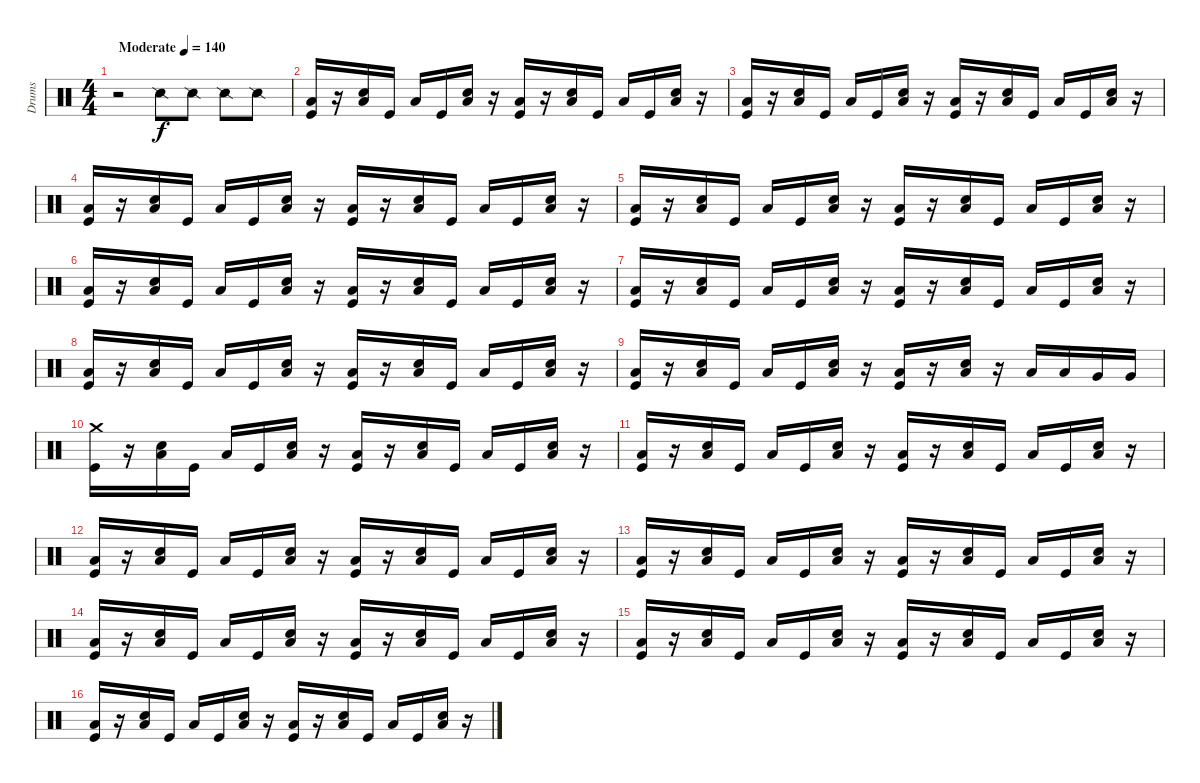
\track ("Drums" "Drums") {instrument percussion}
\staff {score}
\articulation defaults
\ts (4 4)
\tempo (140 "Moderate")
\clef neutral
\ks c
r.2{dy f} "Snare (side stick) 2".8 "Snare (side stick) 2".8 "Snare (side stick) 2".8 "Snare (side stick) 2".8 |
("Low Floor Tom (hit)" "Kick (hit)").16 r.16 ("Low Floor Tom (hit)" "Snare (hit) 2").16 "Kick (hit)".16 "Low Floor Tom (hit)".16 "Kick (hit)".16 ("Low Floor Tom (hit)" "Snare (hit) 2").16 r.16 ("Low Floor Tom (hit)" "Kick (hit)").16 r.16 ("Low Floor Tom (hit)" "Snare (hit) 2").16 "Kick (hit)".16 "Low Floor Tom (hit)".16 "Kick (hit)".16 ("Low Floor Tom (hit)" "Snare (hit) 2").16 r.16 |
("Low Floor Tom (hit)" "Kick (hit)").16 r.16 ("Low Floor Tom (hit)" "Snare (hit) 2").16 "Kick (hit)".16 "Low Floor Tom (hit)".16 "Kick (hit)".16 ("Low Floor Tom (hit)" "Snare (hit) 2").16 r.16 ("Low Floor Tom (hit)" "Kick (hit)").16 r.16 ("Low Floor Tom (hit)" "Snare (hit) 2").16 "Kick (hit)".16 "Low Floor Tom (hit)".16 "Kick (hit)".16 ("Low Floor Tom (hit)" "Snare (hit) 2").16 r.16 |
("Low Floor Tom (hit)" "Kick (hit)").16 r.16 ("Low Floor Tom (hit)" "Snare (hit) 2").16 "Kick (hit)".16 "Low Floor Tom (hit)".16 "Kick (hit)".16 ("Low Floor Tom (hit)" "Snare (hit) 2").16 r.16 ("Low Floor Tom (hit)" "Kick (hit)").16 r.16 ("Low Floor Tom (hit)" "Snare (hit) 2").16 "Kick (hit)".16 "Low Floor Tom (hit)".16 "Kick (hit)".16 ("Low Floor Tom (hit)" "Snare (hit) 2").16 r.16 |
("Low Floor Tom (hit)" "Kick (hit)").16 r.16 ("Low Floor Tom (hit)" "Snare (hit) 2").16 "Kick (hit)".16 "Low Floor Tom (hit)".16 "Kick (hit)".16 ("Low Floor Tom (hit)" "Snare (hit) 2").16 r.16 ("Low Floor Tom (hit)" "Kick (hit)").16 r.16 ("Low Floor Tom (hit)" "Snare (hit) 2").16 "Kick (hit)".16 "Low Floor Tom (hit)".16 "Kick (hit)".16 ("Low Floor Tom (hit)" "Snare (hit) 2").16 r.16 |
("Low Floor Tom (hit)" "Kick (hit)").16 r.16 ("Low Floor Tom (hit)" "Snare (hit) 2").16 "Kick (hit)".16 "Low Floor Tom (hit)".16 "Kick (hit)".16 ("Low Floor Tom (hit)" "Snare (hit) 2").16 r.16 ("Low Floor Tom (hit)" "Kick (hit)").16 r.16 ("Low Floor Tom (hit)" "Snare (hit) 2").16 "Kick (hit)".16 "Low Floor Tom (hit)".16 "Kick (hit)".16 ("Low Floor Tom (hit)" "Snare (hit) 2").16 r.16 |
("Low Floor Tom (hit)" "Kick (hit)").16 r.16 ("Low Floor Tom (hit)" "Snare (hit) 2").16 "Kick (hit)".16 "Low Floor Tom (hit)".16 "Kick (hit)".16 ("Low Floor Tom (hit)" "Snare (hit) 2").16 r.16 ("Low Floor Tom (hit)" "Kick (hit)").16 r.16 ("Low Floor Tom (hit)" "Snare (hit) 2").16 "Kick (hit)".16 "Low Floor Tom (hit)".16 "Kick (hit)".16 ("Low Floor Tom (hit)" "Snare (hit) 2").16 r.16 |
("Low Floor Tom (hit)" "Kick (hit)").16 r.16 ("Low Floor Tom (hit)" "Snare (hit) 2").16 "Kick (hit)".16 "Low Floor Tom (hit)".16 "Kick (hit)".16 ("Low Floor Tom (hit)" "Snare (hit) 2").16 r.16 ("Low Floor Tom (hit)" "Kick (hit)").16 r.16 ("Low Floor Tom (hit)" "Snare (hit) 2").16 "Kick (hit)".16 "Low Floor Tom (hit)".16 "Kick (hit)".16 ("Low Floor Tom (hit)" "Snare (hit) 2").16 r.16 |
("Low Floor Tom (hit)" "Kick (hit)").16 r.16 ("Low Floor Tom (hit)" "Snare (hit) 2").16 "Kick (hit)".16 "Low Floor Tom (hit)".16 "Kick (hit)".16 ("Low Floor Tom (hit)" "Snare (hit) 2").16 r.16 ("Low Floor Tom (hit)" "Kick (hit)").16 r.16 ("Low Floor Tom (hit)" "Snare (hit) 2").16 r.16 "Low Tom (hit)".16 "Low Tom (hit)".16 "Very Low Tom (hit)".16 "Very Low Tom (hit)".16 |
("Crash medium (hit)" "Kick (hit)").16 r.16 ("Low Floor Tom (hit)" "Snare (hit) 2").16 "Kick (hit)".16 "Low Floor Tom (hit)".16 "Kick (hit)".16 ("Low Floor Tom (hit)" "Snare (hit) 2").16 r.16 ("Low Floor Tom (hit)" "Kick (hit)").16 r.16 ("Low Floor Tom (hit)" "Snare (hit) 2").16 "Kick (hit)".16 "Low Floor Tom (hit)".16 "Kick (hit)".16 ("Low Floor Tom (hit)" "Snare (hit) 2").16 r.16 |
("Low Floor Tom (hit)" "Kick (hit)").16 r.16 ("Low Floor Tom (hit)" "Snare (hit) 2").16 "Kick (hit)".16 "Low Floor Tom (hit)".16 "Kick (hit)".16 ("Low Floor Tom (hit)" "Snare (hit) 2").16 r.16 ("Low Floor Tom (hit)" "Kick (hit)").16 r.16 ("Low Floor Tom (hit)" "Snare (hit) 2").16 "Kick (hit)".16 "Low Floor Tom (hit)".16 "Kick (hit)".16 ("Low Floor Tom (hit)" "Snare (hit) 2").16 r.16 |
("Low Floor Tom (hit)" "Kick (hit)").16 r.16 ("Low Floor Tom (hit)" "Snare (hit) 2").16 "Kick (hit)".16 "Low Floor Tom (hit)".16 "Kick (hit)".16 ("Low Floor Tom (hit)" "Snare (hit) 2").16 r.16 ("Low Floor Tom (hit)" "Kick (hit)").16 r.16 ("Low Floor Tom (hit)" "Snare (hit) 2").16 "Kick (hit)".16 "Low Floor Tom (hit)".16 "Kick (hit)".16 ("Low Floor Tom (hit)" "Snare (hit) 2").16 r.16 |
("Low Floor Tom (hit)" "Kick (hit)").16 r.16 ("Low Floor Tom (hit)" "Snare (hit) 2").16 "Kick (hit)".16 "Low Floor Tom (hit)".16 "Kick (hit)".16 ("Low Floor Tom (hit)" "Snare (hit) 2").16 r.16 ("Low Floor Tom (hit)" "Kick (hit)").16 r.16 ("Low Floor Tom (hit)" "Snare (hit) 2").16 "Kick (hit)".16 "Low Floor Tom (hit)".16 "Kick (hit)".16 ("Low Floor Tom (hit)" "Snare (hit) 2").16 r.16 |
("Low Floor Tom (hit)" "Kick (hit)").16 r.16 ("Low Floor Tom (hit)" "Snare (hit) 2").16 "Kick (hit)".16 "Low Floor Tom (hit)".16 "Kick (hit)".16 ("Low Floor Tom (hit)" "Snare (hit) 2").16 r.16 ("Low Floor Tom (hit)" "Kick (hit)").16 r.16 ("Low Floor Tom (hit)" "Snare (hit) 2").16 "Kick (hit)".16 "Low Floor Tom (hit)".16 "Kick (hit)".16 ("Low Floor Tom (hit)" "Snare (hit) 2").16 r.16 |
("Low Floor Tom (hit)" "Kick (hit)").16 r.16 ("Low Floor Tom (hit)" "Snare (hit) 2").16 "Kick (hit)".16 "Low Floor Tom (hit)".16 "Kick (hit)".16 ("Low Floor Tom (hit)" "Snare (hit) 2").16 r.16 ("Low Floor Tom (hit)" "Kick (hit)").16 r.16 ("Low Floor Tom (hit)" "Snare (hit) 2").16 "Kick (hit)".16 "Low Floor Tom (hit)".16 "Kick (hit)".16 ("Low Floor Tom (hit)" "Snare (hit) 2").16 r.16 |
("Low Floor Tom (hit)" "Kick (hit)").16 r.16 ("Low Floor Tom (hit)" "Snare (hit) 2").16 "Kick (hit)".16 "Low Floor Tom (hit)".16 "Kick (hit)".16 ("Low Floor Tom (hit)" "Snare (hit) 2").16 r.16 ("Low Floor Tom (hit)" "Kick (hit)").16 r.16 ("Low Floor Tom (hit)" "Snare (hit) 2").16 "Kick (hit)".16 "Low Floor Tom (hit)".16 "Kick (hit)".16 ("Low Floor Tom (hit)" "Snare (hit) 2").16 r.16
